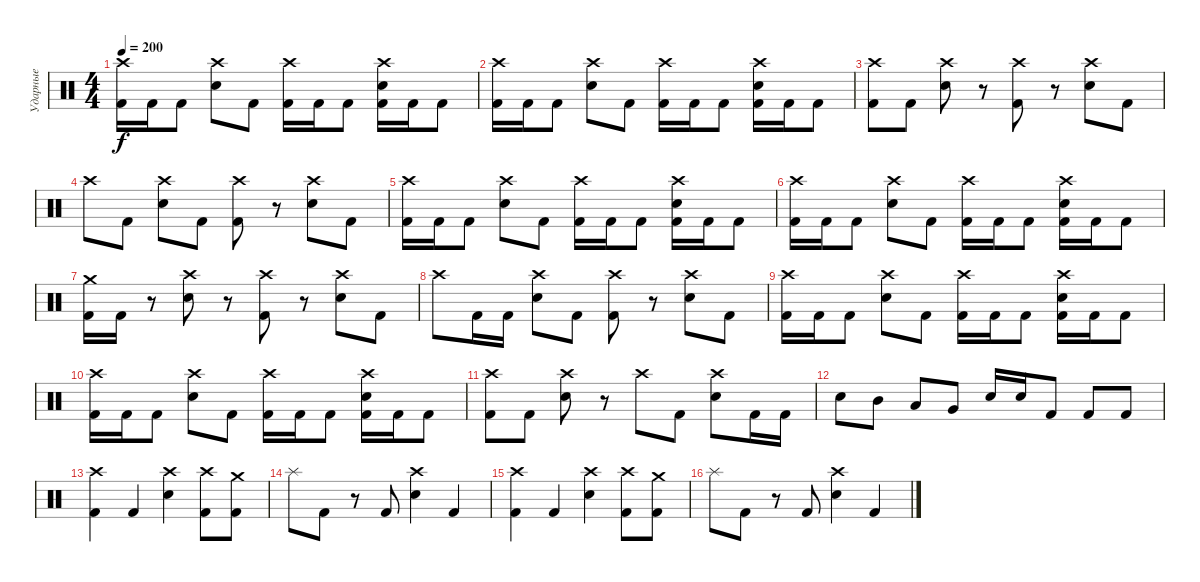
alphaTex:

\track ("Ударные" "Ударные") {instrument percussion}
\staff {score}
\articulation defaults
\ts (4 4)
\tempo 200
\clef neutral
\ks c
("Crash high (hit)" "Kick (hit) 2").16{dy f} "Kick (hit) 2".16 "Kick (hit) 2".8 ("Crash high (hit)" "Snare (hit) 2").8 "Kick (hit) 2".8 ("Crash high (hit)" "Kick (hit) 2").16 "Kick (hit) 2".16 "Kick (hit) 2".8 ("Crash high (hit)" "Snare (hit) 2" "Kick (hit) 2").16 "Kick (hit) 2".16 "Kick (hit) 2".8 |
("Crash high (hit)" "Kick (hit) 2").16 "Kick (hit) 2".16 "Kick (hit) 2".8 ("Crash high (hit)" "Snare (hit) 2").8 "Kick (hit) 2".8 ("Crash high (hit)" "Kick (hit) 2").16 "Kick (hit) 2".16 "Kick (hit) 2".8 ("Crash high (hit)" "Snare (hit) 2" "Kick (hit) 2").16 "Kick (hit) 2".16 "Kick (hit) 2".8 |
("Crash high (hit)" "Kick (hit) 2").8 "Kick (hit) 2".8 ("Crash high (hit)" "Snare (hit) 2").8 r.8 ("Crash high (hit)" "Kick (hit) 2").8 r.8 ("Crash high (hit)" "Snare (hit) 2").8 "Kick (hit) 2".8 |
"Crash high (hit)".8 "Kick (hit) 2".8 ("Crash high (hit)" "Snare (hit) 2").8 "Kick (hit) 2".8 ("Crash high (hit)" "Kick (hit) 2").8 r.8 ("Crash high (hit)" "Snare (hit) 2").8 "Kick (hit) 2".8 |
("Crash high (hit)" "Kick (hit) 2").16 "Kick (hit) 2".16 "Kick (hit) 2".8 ("Crash high (hit)" "Snare (hit) 2").8 "Kick (hit) 2".8 ("Crash high (hit)" "Kick (hit) 2").16 "Kick (hit) 2".16 "Kick (hit) 2".8 ("Crash high (hit)" "Snare (hit) 2" "Kick (hit) 2").16 "Kick (hit) 2".16 "Kick (hit) 2".8 |
("Crash high (hit)" "Kick (hit) 2").16 "Kick (hit) 2".16 "Kick (hit) 2".8 ("Crash high (hit)" "Snare (hit) 2").8 "Kick (hit) 2".8 ("Crash high (hit)" "Kick (hit) 2").16 "Kick (hit) 2".16 "Kick (hit) 2".8 ("Crash high (hit)" "Snare (hit) 2" "Kick (hit) 2").16 "Kick (hit) 2".16 "Kick (hit) 2".8 |
("Crash medium (hit)" "Kick (hit) 2").16 "Kick (hit) 2".16 r.8 ("Crash high (hit)" "Snare (hit) 2").8 r.8 ("Crash high (hit)" "Kick (hit) 2").8 r.8 ("Crash high (hit)" "Snare (hit) 2").8 "Kick (hit) 2".8 |
"Crash high (hit)".8 "Kick (hit) 2".16 "Kick (hit) 2".16 ("Crash high (hit)" "Snare (hit) 2").8 "Kick (hit) 2".8 ("Crash high (hit)" "Kick (hit) 2").8 r.8 ("Crash high (hit)" "Snare (hit) 2").8 "Kick (hit) 2".8 |
("Crash high (hit)" "Kick (hit) 2").16 "Kick (hit) 2".16 "Kick (hit) 2".8 ("Crash high (hit)" "Snare (hit) 2").8 "Kick (hit) 2".8 ("Crash high (hit)" "Kick (hit) 2").16 "Kick (hit) 2".16 "Kick (hit) 2".8 ("Crash high (hit)" "Snare (hit) 2" "Kick (hit) 2").16 "Kick (hit) 2".16 "Kick (hit) 2".8 |
("Crash high (hit)" "Kick (hit) 2").16 "Kick (hit) 2".16 "Kick (hit) 2".8 ("Crash high (hit)" "Snare (hit) 2").8 "Kick (hit) 2".8 ("Crash high (hit)" "Kick (hit) 2").16 "Kick (hit) 2".16 "Kick (hit) 2".8 ("Crash high (hit)" "Snare (hit) 2" "Kick (hit) 2").16 "Kick (hit) 2".16 "Kick (hit) 2".8 |
("Crash high (hit)" "Kick (hit) 2").8 "Kick (hit) 2".8 ("Crash high (hit)" "Snare (hit) 2").8 r.8 "Crash high (hit)".8 "Kick (hit) 2".8 ("Crash high (hit)" "Snare (hit) 2").8 "Kick (hit) 2".16 "Kick (hit) 2".16 |
"Snare (hit) 2".8 "Mid Tom (hit)".8 "Low Tom (hit)".8 "Very Low Tom (hit)".8 "Snare (hit) 2".16 "Snare (hit) 2".16 "Kick (hit) 2".8 "Kick (hit) 2".8 "Kick (hit) 2".8 |
("Crash high (hit)" "Kick (hit) 2").4 "Kick (hit) 2".4 ("Crash high (hit)" "Snare (hit) 2").4 ("Crash high (hit)" "Kick (hit) 2").8 ("Crash medium (hit)" "Kick (hit) 2").8 |
"Splash (hit)".8 "Kick (hit) 2".8 r.8 "Kick (hit) 2".8 ("Crash high (hit)" "Snare (hit) 2").4 "Kick (hit) 2".4 |
("Crash high (hit)" "Kick (hit) 2").4 "Kick (hit) 2".4 ("Crash high (hit)" "Snare (hit) 2").4 ("Crash high (hit)" "Kick (hit) 2").8 ("Crash medium (hit)" "Kick (hit) 2").8 |
"Splash (hit)".8 "Kick (hit) 2".8 r.8 "Kick (hit) 2".8 ("Crash high (hit)" "Snare (hit) 2").4 "Kick (hit) 2".4
